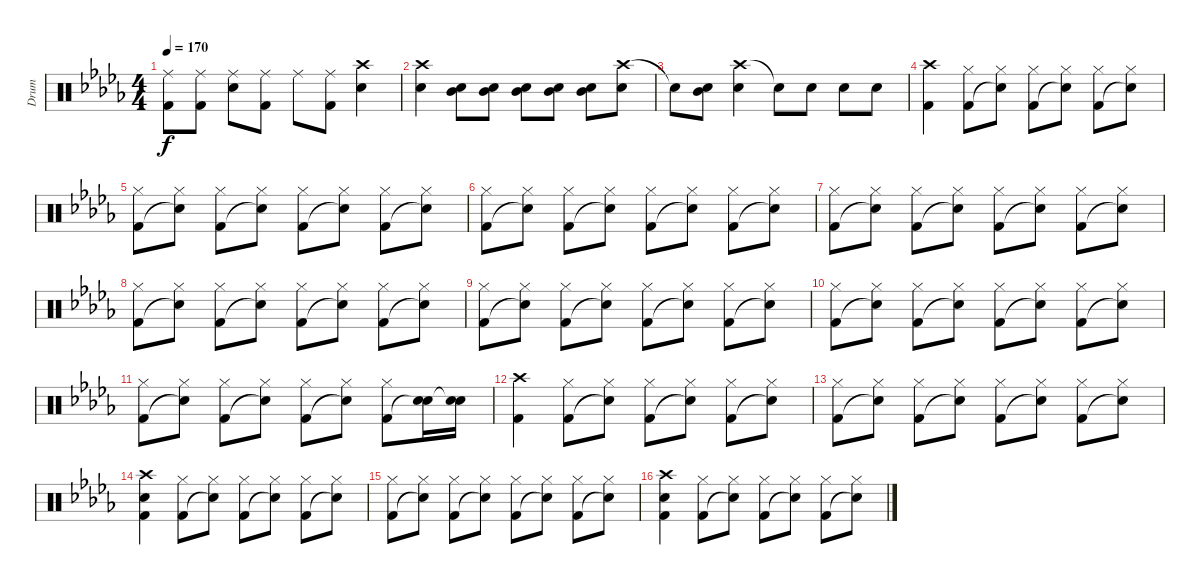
\track ("Drum" "Drum") {instrument percussion}
\staff {score}
\articulation defaults
\ts (4 4)
\tempo 170
\clef neutral
\ks db
("Ride (middle)" "Kick (hit) 2").8{dy f} ("Ride (middle)" "Kick (hit) 2").8 ("Ride (middle)" "Electric Snare (hit)").8 ("Ride (middle)" "Kick (hit) 2").8 "Ride (middle)".8 ("Ride (middle)" "Kick (hit) 2").8 ("Crash high (hit)" "Electric Snare (hit)").4 |
("Crash high (hit)" "Electric Snare (hit)").4 ("Mid Tom (hit)" "Electric Snare (hit)").8 ("Mid Tom (hit)" "Electric Snare (hit)").8 ("Mid Tom (hit)" "Electric Snare (hit)").8 ("Mid Tom (hit)" "Electric Snare (hit)").8 ("Mid Tom (hit)" "Electric Snare (hit)").8 ("Crash high (hit)" "Electric Snare (hit)").8 |
"Snare (hit)"{t}.8 ("Mid Tom (hit)" "Electric Snare (hit)").8 ("Crash high (hit)" "Electric Snare (hit)").4 "Snare (hit)"{t}.8 "Electric Snare (hit)".8 "Electric Snare (hit)".8 "Electric Snare (hit)".8 |
("Crash high (hit)" "Kick (hit) 2").4 ("Hi-Hat (closed)" "Kick (hit) 2").8 ("Hi-Hat (closed)" "Snare (hit)"{t}).8 ("Hi-Hat (closed)" "Kick (hit) 2").8 ("Hi-Hat (closed)" "Snare (hit)"{t}).8 ("Hi-Hat (closed)" "Kick (hit) 2").8 ("Hi-Hat (closed)" "Snare (hit)"{t}).8 |
("Hi-Hat (closed)" "Kick (hit) 2").8 ("Hi-Hat (closed)" "Snare (hit)"{t}).8 ("Hi-Hat (closed)" "Kick (hit) 2").8 ("Hi-Hat (closed)" "Snare (hit)"{t}).8 ("Hi-Hat (closed)" "Kick (hit) 2").8 ("Hi-Hat (closed)" "Snare (hit)"{t}).8 ("Hi-Hat (closed)" "Kick (hit) 2").8 ("Hi-Hat (closed)" "Snare (hit)"{t}).8 |
("Hi-Hat (closed)" "Kick (hit) 2").8 ("Hi-Hat (closed)" "Snare (hit)"{t}).8 ("Hi-Hat (closed)" "Kick (hit) 2").8 ("Hi-Hat (closed)" "Snare (hit)"{t}).8 ("Hi-Hat (closed)" "Kick (hit) 2").8 ("Hi-Hat (closed)" "Snare (hit)"{t}).8 ("Hi-Hat (closed)" "Kick (hit) 2").8 ("Hi-Hat (closed)" "Snare (hit)"{t}).8 |
("Hi-Hat (closed)" "Kick (hit) 2").8 ("Hi-Hat (closed)" "Snare (hit)"{t}).8 ("Hi-Hat (closed)" "Kick (hit) 2").8 ("Hi-Hat (closed)" "Snare (hit)"{t}).8 ("Hi-Hat (closed)" "Kick (hit) 2").8 ("Hi-Hat (closed)" "Snare (hit)"{t}).8 ("Hi-Hat (closed)" "Kick (hit) 2").8 ("Hi-Hat (closed)" "Snare (hit)"{t}).8 |
("Hi-Hat (closed)" "Kick (hit) 2").8 ("Hi-Hat (closed)" "Snare (hit)"{t}).8 ("Hi-Hat (closed)" "Kick (hit) 2").8 ("Hi-Hat (closed)" "Snare (hit)"{t}).8 ("Hi-Hat (closed)" "Kick (hit) 2").8 ("Hi-Hat (closed)" "Snare (hit)"{t}).8 ("Hi-Hat (closed)" "Kick (hit) 2").8 ("Hi-Hat (closed)" "Snare (hit)"{t}).8 |
("Hi-Hat (closed)" "Kick (hit) 2").8 ("Hi-Hat (closed)" "Snare (hit)"{t}).8 ("Hi-Hat (closed)" "Kick (hit) 2").8 ("Hi-Hat (closed)" "Snare (hit)"{t}).8 ("Hi-Hat (closed)" "Kick (hit) 2").8 ("Hi-Hat (closed)" "Snare (hit)"{t}).8 ("Hi-Hat (closed)" "Kick (hit) 2").8 ("Hi-Hat (closed)" "Snare (hit)"{t}).8 |
("Hi-Hat (closed)" "Kick (hit) 2").8 ("Hi-Hat (closed)" "Snare (hit)"{t}).8 ("Hi-Hat (closed)" "Kick (hit) 2").8 ("Hi-Hat (closed)" "Snare (hit)"{t}).8 ("Hi-Hat (closed)" "Kick (hit) 2").8 ("Hi-Hat (closed)" "Snare (hit)"{t}).8 ("Hi-Hat (closed)" "Kick (hit) 2").8 ("Hi-Hat (closed)" "Snare (hit)"{t}).8 |
("Hi-Hat (closed)" "Kick (hit) 2").8 ("Hi-Hat (closed)" "Snare (hit)"{t}).8 ("Hi-Hat (closed)" "Kick (hit) 2").8 ("Hi-Hat (closed)" "Snare (hit)"{t}).8 ("Hi-Hat (closed)" "Kick (hit) 2").8 ("Hi-Hat (closed)" "Snare (hit)"{t}).8 ("Hi-Hat (closed)" "Kick (hit) 2").8 ("Electric Snare (hit)" "Snare (hit)"{t}).16 ("Electric Snare (hit)" "Snare (hit)"{t}).16 |
("Crash high (hit)" "Kick (hit) 2").4 ("Hi-Hat (closed)" "Kick (hit) 2").8 ("Hi-Hat (closed)" "Snare (hit)"{t}).8 ("Hi-Hat (closed)" "Kick (hit) 2").8 ("Hi-Hat (closed)" "Snare (hit)"{t}).8 ("Hi-Hat (closed)" "Kick (hit) 2").8 ("Hi-Hat (closed)" "Snare (hit)"{t}).8 |
("Hi-Hat (closed)" "Kick (hit) 2").8 ("Hi-Hat (closed)" "Snare (hit)"{t}).8 ("Hi-Hat (closed)" "Kick (hit) 2").8 ("Hi-Hat (closed)" "Snare (hit)"{t}).8 ("Hi-Hat (closed)" "Kick (hit) 2").8 ("Hi-Hat (closed)" "Snare (hit)"{t}).8 ("Hi-Hat (closed)" "Kick (hit) 2").8 ("Hi-Hat (closed)" "Snare (hit)"{t}).8 |
("Crash high (hit)" "Electric Snare (hit)" "Kick (hit) 2").4 ("Hi-Hat (closed)" "Kick (hit) 2").8 ("Hi-Hat (closed)" "Snare (hit)"{t}).8 ("Hi-Hat (closed)" "Kick (hit) 2").8 ("Hi-Hat (closed)" "Snare (hit)"{t}).8 ("Hi-Hat (closed)" "Kick (hit) 2").8 ("Hi-Hat (closed)" "Snare (hit)"{t}).8 |
("Hi-Hat (closed)" "Kick (hit) 2").8 ("Hi-Hat (closed)" "Snare (hit)"{t}).8 ("Hi-Hat (closed)" "Kick (hit) 2").8 ("Hi-Hat (closed)" "Snare (hit)"{t}).8 ("Hi-Hat (closed)" "Kick (hit) 2").8 ("Hi-Hat (closed)" "Snare (hit)"{t}).8 ("Hi-Hat (closed)" "Kick (hit) 2").8 ("Hi-Hat (closed)" "Snare (hit)"{t}).8 |
("Crash high (hit)" "Electric Snare (hit)" "Kick (hit) 2").4 ("Hi-Hat (closed)" "Kick (hit) 2").8 ("Hi-Hat (closed)" "Snare (hit)"{t}).8 ("Hi-Hat (closed)" "Kick (hit) 2").8 ("Hi-Hat (closed)" "Snare (hit)"{t}).8 ("Hi-Hat (closed)" "Kick (hit) 2").8 ("Hi-Hat (closed)" "Snare (hit)"{t}).8
